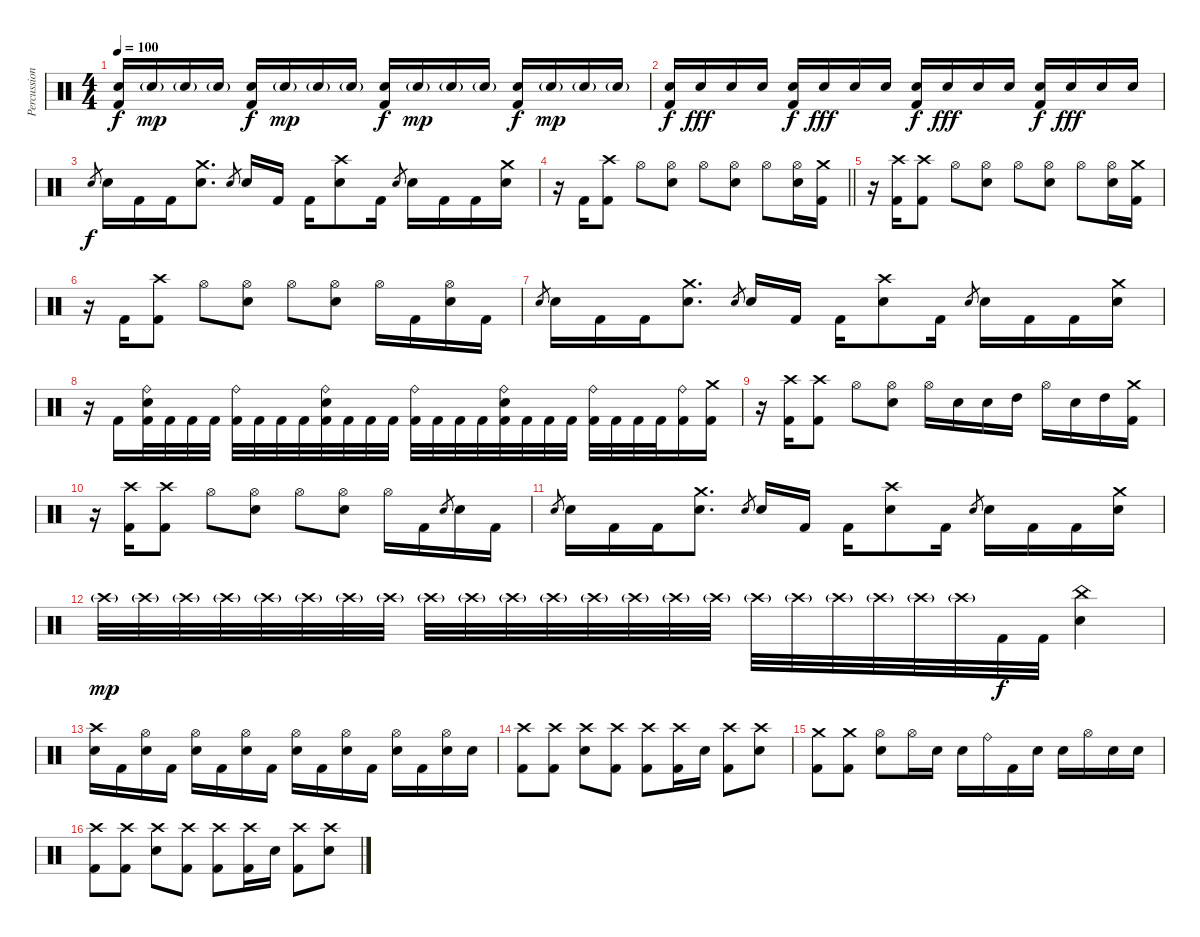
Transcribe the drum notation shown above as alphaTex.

\track ("Percussion (Moose)" "Percussion") {instrument percussion}
\staff {score}
\articulation defaults
\ts (4 4)
\tempo 100
\clef neutral
\ks c
("Electric Snare (hit)" "Kick (hit) 2").16{dy f} "Electric Snare (hit)"{g}.16{dy mp} "Electric Snare (hit)"{g}.16 "Electric Snare (hit)"{g}.16 ("Electric Snare (hit)" "Kick (hit) 2").16{dy f} "Electric Snare (hit)"{g}.16{dy mp} "Electric Snare (hit)"{g}.16 "Electric Snare (hit)"{g}.16 ("Electric Snare (hit)" "Kick (hit) 2").16{dy f} "Electric Snare (hit)"{g}.16{dy mp} "Electric Snare (hit)"{g}.16 "Electric Snare (hit)"{g}.16 ("Electric Snare (hit)" "Kick (hit) 2").16{dy f} "Electric Snare (hit)"{g}.16{dy mp} "Electric Snare (hit)"{g}.16 "Electric Snare (hit)"{g}.16 |
("Electric Snare (hit)" "Kick (hit) 2").16{dy f} "Electric Snare (hit)".16{dy fff} "Electric Snare (hit)".16 "Electric Snare (hit)".16 ("Electric Snare (hit)" "Kick (hit) 2").16{dy f} "Electric Snare (hit)".16{dy fff} "Electric Snare (hit)".16 "Electric Snare (hit)".16 ("Electric Snare (hit)" "Kick (hit) 2").16{dy f} "Electric Snare (hit)".16{dy fff} "Electric Snare (hit)".16 "Electric Snare (hit)".16 ("Electric Snare (hit)" "Kick (hit) 2").16{dy f} "Electric Snare (hit)".16{dy fff} "Electric Snare (hit)".16 "Electric Snare (hit)".16 |
"Electric Snare (hit)".8{gr dy f} "Electric Snare (hit)".16 "Kick (hit) 2".16 "Kick (hit) 2".16 ("Crash medium (hit)" "Electric Snare (hit)").8{d} "Electric Snare (hit)".8{gr} "Electric Snare (hit)".16 "Kick (hit) 2".16 "Kick (hit) 2".16 ("Crash high (hit)" "Electric Snare (hit)").8 "Kick (hit) 2".16 "Electric Snare (hit)".8{gr} "Electric Snare (hit)".16 "Kick (hit) 2".16 "Kick (hit) 2".16 ("Crash medium (hit)" "Electric Snare (hit)").16 |
\barLineRight lightlight
r.16 "Kick (hit) 2".16 ("Crash high (hit)" "Kick (hit) 2").8 "Hi-Hat (open)".8 ("Hi-Hat (open)" "Electric Snare (hit)").8 "Hi-Hat (open)".8 ("Hi-Hat (open)" "Electric Snare (hit)").8 "Hi-Hat (open)".8 ("Hi-Hat (open)" "Electric Snare (hit)").16 ("Crash medium (hit)" "Kick (hit) 2").16 |
r.16 ("Crash high (hit)" "Kick (hit) 2").16 ("Crash high (hit)" "Kick (hit) 2").8 "Hi-Hat (open)".8 ("Hi-Hat (open)" "Electric Snare (hit)").8 "Hi-Hat (open)".8 ("Hi-Hat (open)" "Electric Snare (hit)").8 "Hi-Hat (open)".8 ("Hi-Hat (open)" "Electric Snare (hit)").16 ("Crash medium (hit)" "Kick (hit) 2").16 |
r.16 "Kick (hit) 2".16 ("Crash high (hit)" "Kick (hit) 2").8 "Hi-Hat (open)".8 ("Hi-Hat (open)" "Electric Snare (hit)").8 "Hi-Hat (open)".8 ("Hi-Hat (open)" "Electric Snare (hit)").8 "Hi-Hat (open)".16 "Kick (hit) 2".16 ("Hi-Hat (open)" "Electric Snare (hit)").16 "Kick (hit) 2".16 |
"Electric Snare (hit)".8{gr} "Electric Snare (hit)".16 "Kick (hit) 2".16 "Kick (hit) 2".16 ("Crash medium (hit)" "Electric Snare (hit)").8{d} "Electric Snare (hit)".8{gr} "Electric Snare (hit)".16 "Kick (hit) 2".16 "Kick (hit) 2".16 ("Crash high (hit)" "Electric Snare (hit)").8 "Kick (hit) 2".16 "Electric Snare (hit)".8{gr} "Electric Snare (hit)".16 "Kick (hit) 2".16 "Kick (hit) 2".16 ("Crash medium (hit)" "Electric Snare (hit)").16 |
r.16 "Kick (hit) 2".16 ("Ride (bell)" "Electric Snare (hit)" "Kick (hit) 2").32 "Kick (hit) 2".32 "Kick (hit) 2".32 "Kick (hit) 2".32 ("Ride (bell)" "Kick (hit) 2").32 "Kick (hit) 2".32 "Kick (hit) 2".32 "Kick (hit) 2".32 ("Ride (bell)" "Electric Snare (hit)" "Kick (hit) 2").32 "Kick (hit) 2".32 "Kick (hit) 2".32 "Kick (hit) 2".32 ("Ride (bell)" "Kick (hit) 2").32 "Kick (hit) 2".32 "Kick (hit) 2".32 "Kick (hit) 2".32 ("Ride (bell)" "Electric Snare (hit)" "Kick (hit) 2").32 "Kick (hit) 2".32 "Kick (hit) 2".32 "Kick (hit) 2".32 ("Ride (bell)" "Kick (hit) 2").32 "Kick (hit) 2".32 "Kick (hit) 2".32 "Kick (hit) 2".32 ("Ride (bell)" "Kick (hit) 2").16 ("Crash medium (hit)" "Kick (hit) 2").16 |
r.16 ("Crash high (hit)" "Kick (hit) 2").16 ("Crash high (hit)" "Kick (hit) 2").8 "Hi-Hat (open)".8 ("Hi-Hat (open)" "Electric Snare (hit)").8 "Hi-Hat (open)".16 "Electric Snare (hit)".16 "Electric Snare (hit)".16 "High Tom (hit)".16 "Hi-Hat (open)".16 "Electric Snare (hit)".16 "High Tom (hit)".16 ("Crash medium (hit)" "Kick (hit) 2").16 |
r.16 ("Crash high (hit)" "Kick (hit) 2").16 ("Crash high (hit)" "Kick (hit) 2").8 "Hi-Hat (open)".8 ("Hi-Hat (open)" "Electric Snare (hit)").8 "Hi-Hat (open)".8 ("Hi-Hat (open)" "Electric Snare (hit)").8 "Hi-Hat (open)".16 "Kick (hit) 2".16 "Electric Snare (hit)".8{gr} "Electric Snare (hit)".16 "Kick (hit) 2".16 |
"Electric Snare (hit)".8{gr} "Electric Snare (hit)".16 "Kick (hit) 2".16 "Kick (hit) 2".16 ("Crash medium (hit)" "Electric Snare (hit)").8{d} "Electric Snare (hit)".8{gr} "Electric Snare (hit)".16 "Kick (hit) 2".16 "Kick (hit) 2".16 ("Crash high (hit)" "Electric Snare (hit)").8 "Kick (hit) 2".16 "Electric Snare (hit)".8{gr} "Electric Snare (hit)".16 "Kick (hit) 2".16 "Kick (hit) 2".16 ("Crash medium (hit)" "Electric Snare (hit)").16 |
"Crash high (hit)"{g}.32{dy mp} "Crash high (hit)"{g}.32 "Crash high (hit)"{g}.32 "Crash high (hit)"{g}.32 "Crash high (hit)"{g}.32 "Crash high (hit)"{g}.32 "Crash high (hit)"{g}.32 "Crash high (hit)"{g}.32 "Crash high (hit)"{g}.32 "Crash high (hit)"{g}.32 "Crash high (hit)"{g}.32 "Crash high (hit)"{g}.32 "Crash high (hit)"{g}.32 "Crash high (hit)"{g}.32 "Crash high (hit)"{g}.32 "Crash high (hit)"{g}.32 "Crash high (hit)"{g}.32 "Crash high (hit)"{g}.32 "Crash high (hit)"{g}.32 "Crash high (hit)"{g}.32 "Crash high (hit)"{g}.32 "Crash high (hit)"{g}.32 "Kick (hit) 2".32{dy f} "Kick (hit) 2".32 ("China (hit)" "Electric Snare (hit)").4 |
("Crash high (hit)" "Electric Snare (hit)").16 "Kick (hit) 2".16 ("Hi-Hat (open)" "Electric Snare (hit)").16 "Kick (hit) 2".16 ("Hi-Hat (open)" "Electric Snare (hit)").16 "Kick (hit) 2".16 ("Hi-Hat (open)" "Electric Snare (hit)").16 "Kick (hit) 2".16 ("Hi-Hat (open)" "Electric Snare (hit)").16 "Kick (hit) 2".16 ("Hi-Hat (open)" "Electric Snare (hit)").16 "Kick (hit) 2".16 ("Hi-Hat (open)" "Electric Snare (hit)").16 "Kick (hit) 2".16 ("Hi-Hat (open)" "Electric Snare (hit)").16 "Electric Snare (hit)".16 |
("Crash high (hit)" "Kick (hit) 2").8 ("Crash high (hit)" "Kick (hit) 2").8 ("Crash high (hit)" "Electric Snare (hit)").8 ("Crash high (hit)" "Kick (hit) 2").8 ("Crash high (hit)" "Kick (hit) 2").8 ("Crash high (hit)" "Kick (hit) 2").16 "Electric Snare (hit)".16 ("Crash high (hit)" "Kick (hit) 2").8 ("Crash high (hit)" "Electric Snare (hit)").8 |
("Crash medium (hit)" "Kick (hit) 2").8 ("Crash medium (hit)" "Kick (hit) 2").8 ("Hi-Hat (open)" "Electric Snare (hit)").8 "Hi-Hat (open)".16 "Electric Snare (hit)".16 "Electric Snare (hit)".16 "Ride (bell)".16 "Kick (hit) 2".16 "Electric Snare (hit)".16 "Electric Snare (hit)".16 "Hi-Hat (open)".16 "Electric Snare (hit)".16 "Electric Snare (hit)".16 |
("Crash high (hit)" "Kick (hit) 2").8 ("Crash high (hit)" "Kick (hit) 2").8 ("Crash high (hit)" "Electric Snare (hit)").8 ("Crash high (hit)" "Kick (hit) 2").8 ("Crash high (hit)" "Kick (hit) 2").8 ("Crash high (hit)" "Kick (hit) 2").16 "Electric Snare (hit)".16 ("Crash high (hit)" "Kick (hit) 2").8 ("Crash high (hit)" "Electric Snare (hit)").8
